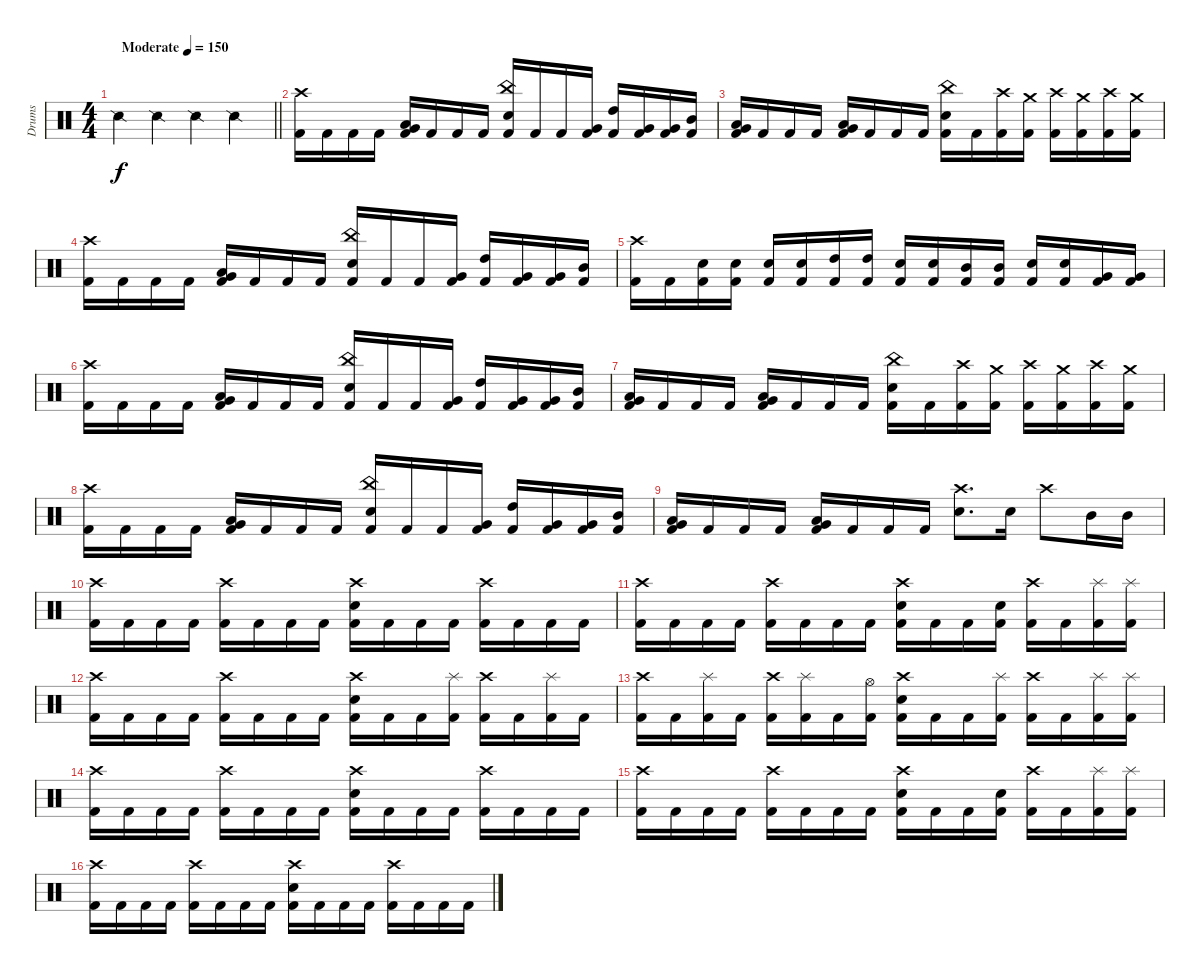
\track ("Drums" "Drums") {instrument percussion}
\staff {score}
\articulation defaults
\ts (4 4)
\tempo (150 "Moderate")
\clef neutral
\barLineRight lightlight
\ks c "Snare (side stick) 2".4{dy f} "Snare (side stick) 2".4 "Snare (side stick) 2".4 "Snare (side stick) 2".4
|
("Crash high (hit)" "Kick (hit) 2").16 "Kick (hit) 2".16 "Kick (hit) 2".16 "Kick (hit) 2".16 ("Low Tom (hit)" "Very Low Tom (hit)" "Kick (hit) 2").16 "Kick (hit) 2".16 "Kick (hit) 2".16 "Kick (hit) 2".16 ("China (hit)" "Snare (hit) 2" "Kick (hit) 2").16 "Kick (hit) 2".16 "Kick (hit) 2".16 ("Very Low Tom (hit)" "Kick (hit) 2").16 ("High Tom (hit)" "Kick (hit) 2").16 ("Very Low Tom (hit)" "Kick (hit) 2").16 ("Very Low Tom (hit)" "Kick (hit) 2").16 ("Mid Tom (hit)" "Kick (hit) 2").16 |
("Low Tom (hit)" "Very Low Tom (hit)" "Kick (hit) 2").16 "Kick (hit) 2".16 "Kick (hit) 2".16 "Kick (hit) 2".16 ("Low Tom (hit)" "Very Low Tom (hit)" "Kick (hit) 2").16 "Kick (hit) 2".16 "Kick (hit) 2".16 "Kick (hit) 2".16 ("China (hit)" "Snare (hit) 2" "Kick (hit) 2").16 "Kick (hit) 2".16 ("Crash high (hit)" "Kick (hit) 2").16 ("Crash medium (hit)" "Kick (hit) 2").16 ("Crash high (hit)" "Kick (hit) 2").16 ("Crash medium (hit)" "Kick (hit) 2").16 ("Crash high (hit)" "Kick (hit) 2").16 ("Crash medium (hit)" "Kick (hit) 2").16 |
("Crash high (hit)" "Kick (hit) 2").16 "Kick (hit) 2".16 "Kick (hit) 2".16 "Kick (hit) 2".16 ("Low Tom (hit)" "Very Low Tom (hit)" "Kick (hit) 2").16 "Kick (hit) 2".16 "Kick (hit) 2".16 "Kick (hit) 2".16 ("China (hit)" "Snare (hit) 2" "Kick (hit) 2").16 "Kick (hit) 2".16 "Kick (hit) 2".16 ("Very Low Tom (hit)" "Kick (hit) 2").16 ("High Tom (hit)" "Kick (hit) 2").16 ("Very Low Tom (hit)" "Kick (hit) 2").16 ("Very Low Tom (hit)" "Kick (hit) 2").16 ("Mid Tom (hit)" "Kick (hit) 2").16 |
("Crash high (hit)" "Kick (hit) 2").16 "Kick (hit) 2".16 ("Snare (hit) 2" "Kick (hit) 2").16 ("Snare (hit) 2" "Kick (hit) 2").16 ("Snare (hit) 2" "Kick (hit) 2").16 ("Snare (hit) 2" "Kick (hit) 2").16 ("High Tom (hit)" "Kick (hit) 2").16 ("High Tom (hit)" "Kick (hit) 2").16 ("Snare (hit) 2" "Kick (hit) 2").16 ("Snare (hit) 2" "Kick (hit) 2").16 ("Mid Tom (hit)" "Kick (hit) 2").16 ("Mid Tom (hit)" "Kick (hit) 2").16 ("Snare (hit) 2" "Kick (hit) 2").16 ("Snare (hit) 2" "Kick (hit) 2").16 ("Very Low Tom (hit)" "Kick (hit) 2").16 ("Very Low Tom (hit)" "Kick (hit) 2").16 |
("Crash high (hit)" "Kick (hit) 2").16 "Kick (hit) 2".16 "Kick (hit) 2".16 "Kick (hit) 2".16 ("Low Tom (hit)" "Very Low Tom (hit)" "Kick (hit) 2").16 "Kick (hit) 2".16 "Kick (hit) 2".16 "Kick (hit) 2".16 ("China (hit)" "Snare (hit) 2" "Kick (hit) 2").16 "Kick (hit) 2".16 "Kick (hit) 2".16 ("Very Low Tom (hit)" "Kick (hit) 2").16 ("High Tom (hit)" "Kick (hit) 2").16 ("Very Low Tom (hit)" "Kick (hit) 2").16 ("Very Low Tom (hit)" "Kick (hit) 2").16 ("Mid Tom (hit)" "Kick (hit) 2").16 |
("Low Tom (hit)" "Very Low Tom (hit)" "Kick (hit) 2").16 "Kick (hit) 2".16 "Kick (hit) 2".16 "Kick (hit) 2".16 ("Low Tom (hit)" "Very Low Tom (hit)" "Kick (hit) 2").16 "Kick (hit) 2".16 "Kick (hit) 2".16 "Kick (hit) 2".16 ("China (hit)" "Snare (hit) 2" "Kick (hit) 2").16 "Kick (hit) 2".16 ("Crash high (hit)" "Kick (hit) 2").16 ("Crash medium (hit)" "Kick (hit) 2").16 ("Crash high (hit)" "Kick (hit) 2").16 ("Crash medium (hit)" "Kick (hit) 2").16 ("Crash high (hit)" "Kick (hit) 2").16 ("Crash medium (hit)" "Kick (hit) 2").16 |
("Crash high (hit)" "Kick (hit) 2").16 "Kick (hit) 2".16 "Kick (hit) 2".16 "Kick (hit) 2".16 ("Low Tom (hit)" "Very Low Tom (hit)" "Kick (hit) 2").16 "Kick (hit) 2".16 "Kick (hit) 2".16 "Kick (hit) 2".16 ("China (hit)" "Snare (hit) 2" "Kick (hit) 2").16 "Kick (hit) 2".16 "Kick (hit) 2".16 ("Very Low Tom (hit)" "Kick (hit) 2").16 ("High Tom (hit)" "Kick (hit) 2").16 ("Very Low Tom (hit)" "Kick (hit) 2").16 ("Very Low Tom (hit)" "Kick (hit) 2").16 ("Mid Tom (hit)" "Kick (hit) 2").16 |
("Low Tom (hit)" "Very Low Tom (hit)" "Kick (hit) 2").16 "Kick (hit) 2".16 "Kick (hit) 2".16 "Kick (hit) 2".16 ("Low Tom (hit)" "Very Low Tom (hit)" "Kick (hit) 2").16 "Kick (hit) 2".16 "Kick (hit) 2".16 "Kick (hit) 2".16 ("Crash high (hit)" "Snare (hit) 2").8{d} "Snare (hit) 2".16 "Crash high (hit)".8 "Mid Tom (hit)".16 "Mid Tom (hit)".16 |
("Crash high (hit)" "Kick (hit) 2").16 "Kick (hit) 2".16 "Kick (hit) 2".16 "Kick (hit) 2".16 ("Crash high (hit)" "Kick (hit) 2").16 "Kick (hit) 2".16 "Kick (hit) 2".16 "Kick (hit) 2".16 ("Crash high (hit)" "Snare (hit) 2" "Kick (hit) 2").16 "Kick (hit) 2".16 "Kick (hit) 2".16 "Kick (hit) 2".16 ("Crash high (hit)" "Kick (hit) 2").16 "Kick (hit) 2".16 "Kick (hit) 2".16 "Kick (hit) 2".16 |
("Crash high (hit)" "Kick (hit) 2").16 "Kick (hit) 2".16 "Kick (hit) 2".16 "Kick (hit) 2".16 ("Crash high (hit)" "Kick (hit) 2").16 "Kick (hit) 2".16 "Kick (hit) 2".16 "Kick (hit) 2".16 ("Crash high (hit)" "Snare (hit) 2" "Kick (hit) 2").16 "Kick (hit) 2".16 "Kick (hit) 2".16 ("Snare (hit) 2" "Kick (hit) 2").16 ("Crash high (hit)" "Kick (hit) 2").16 "Kick (hit) 2".16 ("Splash (hit)" "Kick (hit) 2").16 ("Splash (hit)" "Kick (hit) 2").16 |
("Crash high (hit)" "Kick (hit) 2").16 "Kick (hit) 2".16 "Kick (hit) 2".16 "Kick (hit) 2".16 ("Crash high (hit)" "Kick (hit) 2").16 "Kick (hit) 2".16 "Kick (hit) 2".16 "Kick (hit) 2".16 ("Crash high (hit)" "Snare (hit) 2" "Kick (hit) 2").16 "Kick (hit) 2".16 "Kick (hit) 2".16 ("Splash (hit)" "Kick (hit) 2").16 ("Crash high (hit)" "Kick (hit) 2").16 "Kick (hit) 2".16 ("Splash (hit)" "Kick (hit) 2").16 "Kick (hit) 2".16 |
("Crash high (hit)" "Kick (hit) 2").16 "Kick (hit) 2".16 ("Splash (hit)" "Kick (hit) 2").16 "Kick (hit) 2".16 ("Crash high (hit)" "Kick (hit) 2").16 ("Splash (hit)" "Kick (hit) 2").16 "Kick (hit) 2".16 ("Hi-Hat (open)" "Kick (hit) 2").16 ("Crash high (hit)" "Snare (hit) 2" "Kick (hit) 2").16 "Kick (hit) 2".16 "Kick (hit) 2".16 ("Splash (hit)" "Kick (hit) 2").16 ("Crash high (hit)" "Kick (hit) 2").16 "Kick (hit) 2".16 ("Splash (hit)" "Kick (hit) 2").16 ("Splash (hit)" "Kick (hit) 2").16 |
("Crash high (hit)" "Kick (hit) 2").16 "Kick (hit) 2".16 "Kick (hit) 2".16 "Kick (hit) 2".16 ("Crash high (hit)" "Kick (hit) 2").16 "Kick (hit) 2".16 "Kick (hit) 2".16 "Kick (hit) 2".16 ("Crash high (hit)" "Snare (hit) 2" "Kick (hit) 2").16 "Kick (hit) 2".16 "Kick (hit) 2".16 "Kick (hit) 2".16 ("Crash high (hit)" "Kick (hit) 2").16 "Kick (hit) 2".16 "Kick (hit) 2".16 "Kick (hit) 2".16 |
("Crash high (hit)" "Kick (hit) 2").16 "Kick (hit) 2".16 "Kick (hit) 2".16 "Kick (hit) 2".16 ("Crash high (hit)" "Kick (hit) 2").16 "Kick (hit) 2".16 "Kick (hit) 2".16 "Kick (hit) 2".16 ("Crash high (hit)" "Snare (hit) 2" "Kick (hit) 2").16 "Kick (hit) 2".16 "Kick (hit) 2".16 ("Snare (hit) 2" "Kick (hit) 2").16 ("Crash high (hit)" "Kick (hit) 2").16 "Kick (hit) 2".16 ("Splash (hit)" "Kick (hit) 2").16 ("Splash (hit)" "Kick (hit) 2").16 |
("Crash high (hit)" "Kick (hit) 2").16 "Kick (hit) 2".16 "Kick (hit) 2".16 "Kick (hit) 2".16 ("Crash high (hit)" "Kick (hit) 2").16 "Kick (hit) 2".16 "Kick (hit) 2".16 "Kick (hit) 2".16 ("Crash high (hit)" "Snare (hit) 2" "Kick (hit) 2").16 "Kick (hit) 2".16 "Kick (hit) 2".16 "Kick (hit) 2".16 ("Crash high (hit)" "Kick (hit) 2").16 "Kick (hit) 2".16 "Kick (hit) 2".16 "Kick (hit) 2".16
